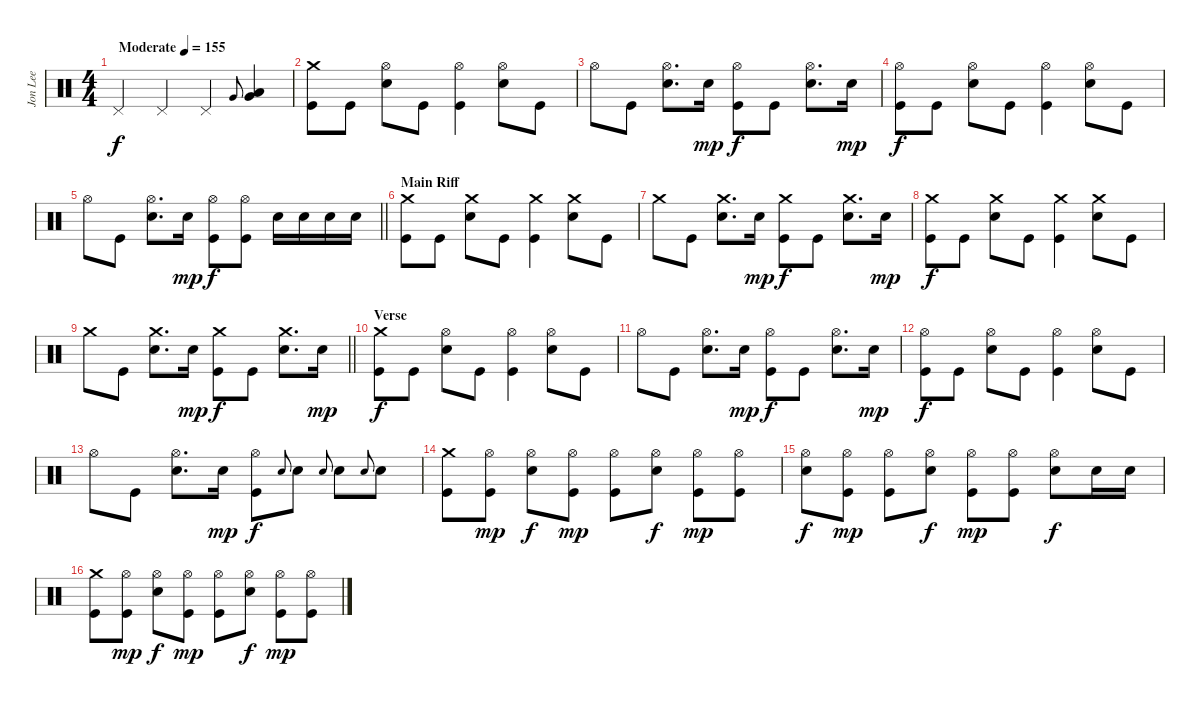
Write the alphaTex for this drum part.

\track ("Jon Lee" "Jon Lee") {instrument percussion}
\staff {score}
\articulation defaults
\ts (4 4)
\tempo (155 "Moderate")
\clef neutral
\ks c "Pedal Hi-Hat (hit)".4{dy f} "Pedal Hi-Hat (hit)".4 "Pedal Hi-Hat (hit)".4 "Very Low Tom (hit)".8{gr onbeat}
("Very Low Tom (hit)" "Low Floor Tom (hit)").4 |
("Crash medium (hit)" "Kick (hit)").8 "Kick (hit)".8 ("Hi-Hat (open)" "Electric Snare (hit)").8 "Kick (hit)".8 ("Hi-Hat (open)" "Kick (hit)").4 ("Hi-Hat (open)" "Electric Snare (hit)").8 "Kick (hit)".8 |
"Hi-Hat (open)".8 "Kick (hit)".8 ("Hi-Hat (open)" "Electric Snare (hit)").8{d} "Electric Snare (hit)".16{dy mp} ("Hi-Hat (open)" "Kick (hit)").8{dy f} "Kick (hit)".8 ("Hi-Hat (open)" "Electric Snare (hit)").8{d} "Electric Snare (hit)".16{dy mp} |
("Hi-Hat (open)" "Kick (hit)").8{dy f} "Kick (hit)".8 ("Hi-Hat (open)" "Electric Snare (hit)").8 "Kick (hit)".8 ("Hi-Hat (open)" "Kick (hit)").4 ("Hi-Hat (open)" "Electric Snare (hit)").8 "Kick (hit)".8 |
\barLineRight lightlight "Hi-Hat (open)".8 "Kick (hit)".8
("Hi-Hat (open)" "Electric Snare (hit)").8{d} "Electric Snare (hit)".16{dy mp} ("Hi-Hat (open)" "Kick (hit)").8{dy f} ("Hi-Hat (open)" "Kick (hit)").8 "Electric Snare (hit)".16 "Electric Snare (hit)".16 "Electric Snare (hit)".16 "Electric Snare (hit)".16 |
\section ("" "Main Riff")
("Crash medium (hit)" "Kick (hit)").8 "Kick (hit)".8 ("Crash medium (hit)" "Electric Snare (hit)").8 "Kick (hit)".8 ("Crash medium (hit)" "Kick (hit)").4 ("Crash medium (hit)" "Electric Snare (hit)").8 "Kick (hit)".8 |
"Crash medium (hit)".8 "Kick (hit)".8 ("Crash medium (hit)" "Electric Snare (hit)").8{d} "Electric Snare (hit)".16{dy mp} ("Crash medium (hit)" "Kick (hit)").8{dy f} "Kick (hit)".8 ("Crash medium (hit)" "Electric Snare (hit)").8{d} "Electric Snare (hit)".16{dy mp} |
("Crash medium (hit)" "Kick (hit)").8{dy f} "Kick (hit)".8 ("Crash medium (hit)" "Electric Snare (hit)").8 "Kick (hit)".8 ("Crash medium (hit)" "Kick (hit)").4 ("Crash medium (hit)" "Electric Snare (hit)").8 "Kick (hit)".8 |
\barLineRight lightlight "Crash medium (hit)".8 "Kick (hit)".8
("Crash medium (hit)" "Electric Snare (hit)").8{d} "Electric Snare (hit)".16{dy mp} ("Crash medium (hit)" "Kick (hit)").8{dy f} "Kick (hit)".8 ("Crash medium (hit)" "Electric Snare (hit)").8{d} "Electric Snare (hit)".16{dy mp} |
\section ("" "Verse")
("Crash medium (hit)" "Kick (hit)").8{dy f} "Kick (hit)".8 ("Hi-Hat (open)" "Electric Snare (hit)").8 "Kick (hit)".8 ("Hi-Hat (open)" "Kick (hit)").4 ("Hi-Hat (open)" "Electric Snare (hit)").8 "Kick (hit)".8 |
"Hi-Hat (open)".8 "Kick (hit)".8 ("Hi-Hat (open)" "Electric Snare (hit)").8{d} "Electric Snare (hit)".16{dy mp} ("Hi-Hat (open)" "Kick (hit)").8{dy f} "Kick (hit)".8 ("Hi-Hat (open)" "Electric Snare (hit)").8{d} "Electric Snare (hit)".16{dy mp} |
("Hi-Hat (open)" "Kick (hit)").8{dy f} "Kick (hit)".8 ("Hi-Hat (open)" "Electric Snare (hit)").8 "Kick (hit)".8 ("Hi-Hat (open)" "Kick (hit)").4 ("Hi-Hat (open)" "Electric Snare (hit)").8 "Kick (hit)".8 |
"Hi-Hat (open)".8 "Kick (hit)".8 ("Hi-Hat (open)" "Electric Snare (hit)").8{d} "Electric Snare (hit)".16{dy mp} ("Hi-Hat (open)" "Kick (hit)").8{dy f} "Electric Snare (hit)".8{gr onbeat} "Electric Snare (hit)".8 "Electric Snare (hit)".8{gr onbeat} "Electric Snare (hit)".8 "Electric Snare (hit)".8{gr onbeat} "Electric Snare (hit)".8 |
("Crash medium (hit)" "Kick (hit)").8 ("Hi-Hat (open)" "Kick (hit)").8{dy mp} ("Hi-Hat (open)" "Electric Snare (hit)").8{dy f} ("Hi-Hat (open)" "Kick (hit)").8{dy mp} ("Hi-Hat (open)" "Kick (hit)").8 ("Hi-Hat (open)" "Electric Snare (hit)").8{dy f} ("Hi-Hat (open)" "Kick (hit)").8{dy mp} ("Hi-Hat (open)" "Kick (hit)").8 |
("Hi-Hat (open)" "Electric Snare (hit)").8{dy f} ("Hi-Hat (open)" "Kick (hit)").8{dy mp} ("Hi-Hat (open)" "Kick (hit)").8 ("Hi-Hat (open)" "Electric Snare (hit)").8{dy f} ("Hi-Hat (open)" "Kick (hit)").8{dy mp} ("Hi-Hat (open)" "Kick (hit)").8 ("Hi-Hat (open)" "Electric Snare (hit)").8{dy f} "Electric Snare (hit)".16 "Electric Snare (hit)".16 |
("Crash medium (hit)" "Kick (hit)").8 ("Hi-Hat (open)" "Kick (hit)").8{dy mp} ("Hi-Hat (open)" "Electric Snare (hit)").8{dy f} ("Hi-Hat (open)" "Kick (hit)").8{dy mp} ("Hi-Hat (open)" "Kick (hit)").8 ("Hi-Hat (open)" "Electric Snare (hit)").8{dy f} ("Hi-Hat (open)" "Kick (hit)").8{dy mp} ("Hi-Hat (open)" "Kick (hit)").8
